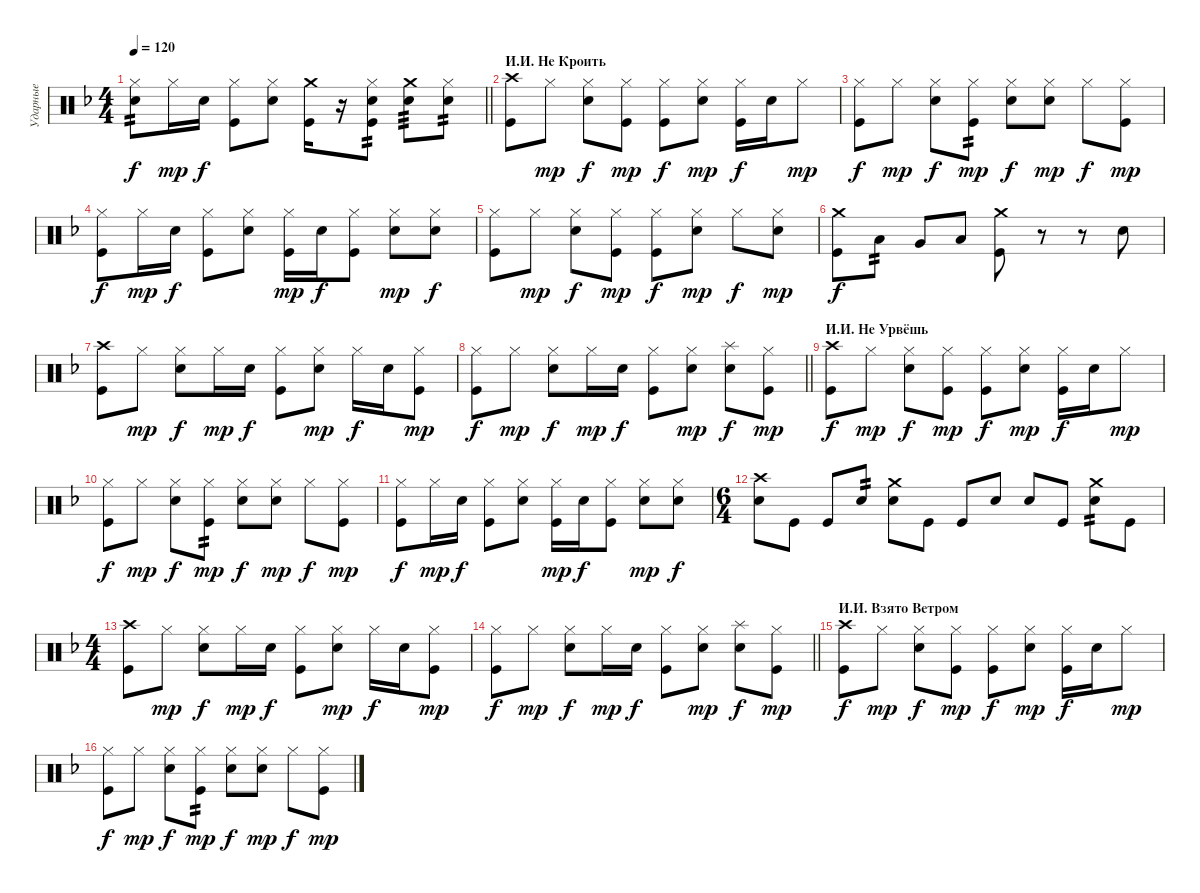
\track ("Ударные" "Ударные") {instrument percussion}
\staff {score}
\articulation defaults
\ts (4 4)
\tempo 120
\clef neutral
\barLineRight lightlight
\ks dminor
("Hi-Hat (closed)" "Snare (hit) 2").8{tp 2 dy f} "Hi-Hat (closed)".16{dy mp} "Snare (hit) 2".16{dy f} ("Hi-Hat (closed)" "Kick (hit)").8 ("Hi-Hat (closed)" "Snare (hit) 2").8 ("Crash medium (hit)" "Kick (hit)").16 r.16 ("Hi-Hat (closed)" "Snare (hit) 2" "Kick (hit)").8{tp 2} ("Crash medium (hit)" "Snare (hit) 2").8{tp 3} ("Hi-Hat (closed)" "Snare (hit) 2").8{tp 2} |
\section ("" "И.И. Не Кроить")
("Crash high (hit)" "Kick (hit)").8 "Hi-Hat (closed)".8{dy mp} ("Hi-Hat (closed)" "Snare (hit) 2").8{dy f} ("Hi-Hat (closed)" "Kick (hit)").8{dy mp} ("Hi-Hat (closed)" "Kick (hit)").8{dy f} ("Hi-Hat (closed)" "Snare (hit) 2").8{dy mp} ("Hi-Hat (closed)" "Kick (hit)").16{dy f} "Snare (hit) 2".16 "Hi-Hat (closed)".8{dy mp} |
("Hi-Hat (closed)" "Kick (hit)").8{dy f} "Hi-Hat (closed)".8{dy mp} ("Hi-Hat (closed)" "Snare (hit) 2").8{dy f} ("Hi-Hat (closed)" "Kick (hit)").8{tp 2 dy mp} ("Hi-Hat (closed)" "Snare (hit) 2").8{dy f} ("Hi-Hat (closed)" "Snare (hit) 2").8{dy mp} "Hi-Hat (closed)".8{dy f} ("Hi-Hat (closed)" "Kick (hit)").8{dy mp} |
("Hi-Hat (closed)" "Kick (hit)").8{dy f} "Hi-Hat (closed)".16{dy mp} "Snare (hit) 2".16{dy f} ("Hi-Hat (closed)" "Kick (hit)").8 ("Hi-Hat (closed)" "Snare (hit) 2").8 ("Hi-Hat (closed)" "Kick (hit)").16{dy mp} "Snare (hit) 2".16{dy f} ("Hi-Hat (closed)" "Kick (hit)").8 ("Hi-Hat (closed)" "Snare (hit) 2").8{dy mp} ("Hi-Hat (closed)" "Snare (hit) 2").8{dy f} |
("Hi-Hat (closed)" "Kick (hit)").8 "Hi-Hat (closed)".8{dy mp} ("Hi-Hat (closed)" "Snare (hit) 2").8{dy f} ("Hi-Hat (closed)" "Kick (hit)").8{dy mp} ("Hi-Hat (closed)" "Kick (hit)").8{dy f} ("Hi-Hat (closed)" "Snare (hit) 2").8{dy mp} "Hi-Hat (closed)".8{dy f} ("Hi-Hat (closed)" "Snare (hit) 2").8{dy mp} |
("Crash medium (hit)" "Kick (hit)").8{dy f} "Low Tom (hit)".8{tp 2} "Very Low Tom (hit)".8 "Low Floor Tom (hit)".8 ("Crash medium (hit)" "Kick (hit)").8 r.8 r.8 "Snare (hit) 2".8 |
("Crash high (hit)" "Kick (hit)").8 "Hi-Hat (closed)".8{dy mp} ("Hi-Hat (closed)" "Snare (hit) 2").8{dy f} "Hi-Hat (closed)".16{dy mp} "Snare (hit) 2".16{dy f} ("Hi-Hat (closed)" "Kick (hit)").8 ("Hi-Hat (closed)" "Snare (hit) 2").8{dy mp} "Hi-Hat (closed)".16{dy f} "Snare (hit) 2".16 ("Hi-Hat (closed)" "Kick (hit)").8{dy mp} |
\barLineRight lightlight
("Hi-Hat (closed)" "Kick (hit)").8{dy f} "Hi-Hat (closed)".8{dy mp} ("Hi-Hat (closed)" "Snare (hit) 2").8{dy f} "Hi-Hat (closed)".16{dy mp} "Snare (hit) 2".16{dy f} ("Hi-Hat (closed)" "Kick (hit)").8 ("Hi-Hat (closed)" "Snare (hit) 2").8{dy mp} ("Splash (hit)" "Snare (hit) 2").8{dy f} ("Hi-Hat (closed)" "Kick (hit)").8{dy mp} |
\section ("" "И.И. Не Урвёшь")
("Crash high (hit)" "Kick (hit)").8{dy f} "Hi-Hat (closed)".8{dy mp} ("Hi-Hat (closed)" "Snare (hit) 2").8{dy f} ("Hi-Hat (closed)" "Kick (hit)").8{dy mp} ("Hi-Hat (closed)" "Kick (hit)").8{dy f} ("Hi-Hat (closed)" "Snare (hit) 2").8{dy mp} ("Hi-Hat (closed)" "Kick (hit)").16{dy f} "Snare (hit) 2".16 "Hi-Hat (closed)".8{dy mp} |
("Hi-Hat (closed)" "Kick (hit)").8{dy f} "Hi-Hat (closed)".8{dy mp} ("Hi-Hat (closed)" "Snare (hit) 2").8{dy f} ("Hi-Hat (closed)" "Kick (hit)").8{tp 2 dy mp} ("Hi-Hat (closed)" "Snare (hit) 2").8{dy f} ("Hi-Hat (closed)" "Snare (hit) 2").8{dy mp} "Hi-Hat (closed)".8{dy f} ("Hi-Hat (closed)" "Kick (hit)").8{dy mp} |
("Hi-Hat (closed)" "Kick (hit)").8{dy f} "Hi-Hat (closed)".16{dy mp} "Snare (hit) 2".16{dy f} ("Hi-Hat (closed)" "Kick (hit)").8 ("Hi-Hat (closed)" "Snare (hit) 2").8 ("Hi-Hat (closed)" "Kick (hit)").16{dy mp} "Snare (hit) 2".16{dy f} ("Hi-Hat (closed)" "Kick (hit)").8 ("Hi-Hat (closed)" "Snare (hit) 2").8{dy mp} ("Hi-Hat (closed)" "Snare (hit) 2").8{dy f} |
\ts (6 4)
("Crash high (hit)" "Snare (hit) 2").8 "Kick (hit)".8 "Kick (hit)".8 "Snare (hit) 2".8{tp 2} ("Crash medium (hit)" "Snare (hit) 2").8 "Kick (hit)".8 "Kick (hit)".8 "Snare (hit) 2".8 "Snare (hit) 2".8 "Kick (hit)".8 ("Crash medium (hit)" "Snare (hit) 2").8{tp 2} "Kick (hit)".8 |
\ts (4 4)
("Crash high (hit)" "Kick (hit)").8 "Hi-Hat (closed)".8{dy mp} ("Hi-Hat (closed)" "Snare (hit) 2").8{dy f} "Hi-Hat (closed)".16{dy mp} "Snare (hit) 2".16{dy f} ("Hi-Hat (closed)" "Kick (hit)").8 ("Hi-Hat (closed)" "Snare (hit) 2").8{dy mp} "Hi-Hat (closed)".16{dy f} "Snare (hit) 2".16 ("Hi-Hat (closed)" "Kick (hit)").8{dy mp} |
\barLineRight lightlight
("Hi-Hat (closed)" "Kick (hit)").8{dy f} "Hi-Hat (closed)".8{dy mp} ("Hi-Hat (closed)" "Snare (hit) 2").8{dy f} "Hi-Hat (closed)".16{dy mp} "Snare (hit) 2".16{dy f} ("Hi-Hat (closed)" "Kick (hit)").8 ("Hi-Hat (closed)" "Snare (hit) 2").8{dy mp} ("Splash (hit)" "Snare (hit) 2").8{dy f} ("Hi-Hat (closed)" "Kick (hit)").8{dy mp} |
\section ("" "И.И. Взято Ветром")
("Crash high (hit)" "Kick (hit)").8{dy f} "Hi-Hat (closed)".8{dy mp} ("Hi-Hat (closed)" "Snare (hit) 2").8{dy f} ("Hi-Hat (closed)" "Kick (hit)").8{dy mp} ("Hi-Hat (closed)" "Kick (hit)").8{dy f} ("Hi-Hat (closed)" "Snare (hit) 2").8{dy mp} ("Hi-Hat (closed)" "Kick (hit)").16{dy f} "Snare (hit) 2".16 "Hi-Hat (closed)".8{dy mp} |
("Hi-Hat (closed)" "Kick (hit)").8{dy f} "Hi-Hat (closed)".8{dy mp} ("Hi-Hat (closed)" "Snare (hit) 2").8{dy f} ("Hi-Hat (closed)" "Kick (hit)").8{tp 2 dy mp} ("Hi-Hat (closed)" "Snare (hit) 2").8{dy f} ("Hi-Hat (closed)" "Snare (hit) 2").8{dy mp} "Hi-Hat (closed)".8{dy f} ("Hi-Hat (closed)" "Kick (hit)").8{dy mp}
